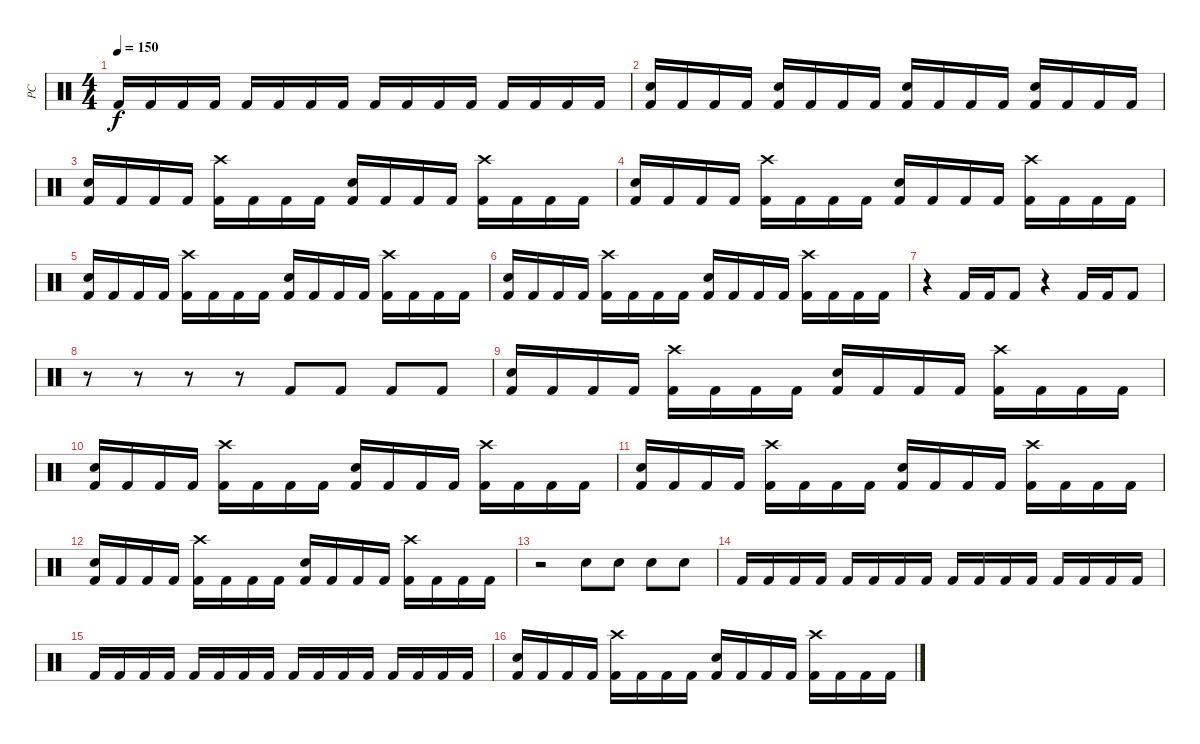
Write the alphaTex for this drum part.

\track ("PC" "PC") {instrument percussion}
\staff {score}
\articulation defaults
\ts (4 4)
\tempo 150
\clef neutral
\ks c "Kick (hit) 2".16{dy f} "Kick (hit) 2".16 "Kick (hit) 2".16 "Kick (hit) 2".16 "Kick (hit) 2".16 "Kick (hit) 2".16 "Kick (hit) 2".16 "Kick (hit) 2".16 "Kick (hit) 2".16 "Kick (hit) 2".16 "Kick (hit) 2".16 "Kick (hit) 2".16 "Kick (hit) 2".16 "Kick (hit) 2".16 "Kick (hit) 2".16 "Kick (hit) 2".16
|
("Kick (hit) 2" "Snare (hit) 2").16 "Kick (hit) 2".16 "Kick (hit) 2".16 "Kick (hit) 2".16 ("Kick (hit) 2" "Snare (hit) 2").16 "Kick (hit) 2".16 "Kick (hit) 2".16 "Kick (hit) 2".16 ("Kick (hit) 2" "Snare (hit) 2").16 "Kick (hit) 2".16 "Kick (hit) 2".16 "Kick (hit) 2".16 ("Kick (hit) 2" "Snare (hit) 2").16 "Kick (hit) 2".16 "Kick (hit) 2".16 "Kick (hit) 2".16 |
("Kick (hit) 2" "Snare (hit) 2").16 "Kick (hit) 2".16 "Kick (hit) 2".16 "Kick (hit) 2".16 ("Kick (hit) 2" "Crash high (hit)").16 "Kick (hit) 2".16 "Kick (hit) 2".16 "Kick (hit) 2".16 ("Kick (hit) 2" "Snare (hit) 2").16 "Kick (hit) 2".16 "Kick (hit) 2".16 "Kick (hit) 2".16 ("Kick (hit) 2" "Crash high (hit)").16 "Kick (hit) 2".16 "Kick (hit) 2".16 "Kick (hit) 2".16 |
("Kick (hit) 2" "Snare (hit) 2").16 "Kick (hit) 2".16 "Kick (hit) 2".16 "Kick (hit) 2".16 ("Kick (hit) 2" "Crash high (hit)").16 "Kick (hit) 2".16 "Kick (hit) 2".16 "Kick (hit) 2".16 ("Kick (hit) 2" "Snare (hit) 2").16 "Kick (hit) 2".16 "Kick (hit) 2".16 "Kick (hit) 2".16 ("Kick (hit) 2" "Crash high (hit)").16 "Kick (hit) 2".16 "Kick (hit) 2".16 "Kick (hit) 2".16 |
("Kick (hit) 2" "Snare (hit) 2").16 "Kick (hit) 2".16 "Kick (hit) 2".16 "Kick (hit) 2".16 ("Kick (hit) 2" "Crash high (hit)").16 "Kick (hit) 2".16 "Kick (hit) 2".16 "Kick (hit) 2".16 ("Kick (hit) 2" "Snare (hit) 2").16 "Kick (hit) 2".16 "Kick (hit) 2".16 "Kick (hit) 2".16 ("Kick (hit) 2" "Crash high (hit)").16 "Kick (hit) 2".16 "Kick (hit) 2".16 "Kick (hit) 2".16 |
("Kick (hit) 2" "Snare (hit) 2").16 "Kick (hit) 2".16 "Kick (hit) 2".16 "Kick (hit) 2".16 ("Kick (hit) 2" "Crash high (hit)").16 "Kick (hit) 2".16 "Kick (hit) 2".16 "Kick (hit) 2".16 ("Kick (hit) 2" "Snare (hit) 2").16 "Kick (hit) 2".16 "Kick (hit) 2".16 "Kick (hit) 2".16 ("Kick (hit) 2" "Crash high (hit)").16 "Kick (hit) 2".16 "Kick (hit) 2".16 "Kick (hit) 2".16 |
r.4 "Kick (hit) 2".16 "Kick (hit) 2".16 "Kick (hit) 2".8 r.4 "Kick (hit) 2".16 "Kick (hit) 2".16 "Kick (hit) 2".8 |
r.8 r.8 r.8 r.8 "Kick (hit) 2".8 "Kick (hit) 2".8 "Kick (hit) 2".8 "Kick (hit) 2".8 |
("Kick (hit) 2" "Snare (hit) 2").16 "Kick (hit) 2".16 "Kick (hit) 2".16 "Kick (hit) 2".16 ("Kick (hit) 2" "Crash high (hit)").16 "Kick (hit) 2".16 "Kick (hit) 2".16 "Kick (hit) 2".16 ("Kick (hit) 2" "Snare (hit) 2").16 "Kick (hit) 2".16 "Kick (hit) 2".16 "Kick (hit) 2".16 ("Kick (hit) 2" "Crash high (hit)").16 "Kick (hit) 2".16 "Kick (hit) 2".16 "Kick (hit) 2".16 |
("Kick (hit) 2" "Snare (hit) 2").16 "Kick (hit) 2".16 "Kick (hit) 2".16 "Kick (hit) 2".16 ("Kick (hit) 2" "Crash high (hit)").16 "Kick (hit) 2".16 "Kick (hit) 2".16 "Kick (hit) 2".16 ("Kick (hit) 2" "Snare (hit) 2").16 "Kick (hit) 2".16 "Kick (hit) 2".16 "Kick (hit) 2".16 ("Kick (hit) 2" "Crash high (hit)").16 "Kick (hit) 2".16 "Kick (hit) 2".16 "Kick (hit) 2".16 |
("Kick (hit) 2" "Snare (hit) 2").16 "Kick (hit) 2".16 "Kick (hit) 2".16 "Kick (hit) 2".16 ("Kick (hit) 2" "Crash high (hit)").16 "Kick (hit) 2".16 "Kick (hit) 2".16 "Kick (hit) 2".16 ("Kick (hit) 2" "Snare (hit) 2").16 "Kick (hit) 2".16 "Kick (hit) 2".16 "Kick (hit) 2".16 ("Kick (hit) 2" "Crash high (hit)").16 "Kick (hit) 2".16 "Kick (hit) 2".16 "Kick (hit) 2".16 |
("Kick (hit) 2" "Snare (hit) 2").16 "Kick (hit) 2".16 "Kick (hit) 2".16 "Kick (hit) 2".16 ("Kick (hit) 2" "Crash high (hit)").16 "Kick (hit) 2".16 "Kick (hit) 2".16 "Kick (hit) 2".16 ("Kick (hit) 2" "Snare (hit) 2").16 "Kick (hit) 2".16 "Kick (hit) 2".16 "Kick (hit) 2".16 ("Kick (hit) 2" "Crash high (hit)").16 "Kick (hit) 2".16 "Kick (hit) 2".16 "Kick (hit) 2".16 |
r.2 "Snare (hit) 2".8 "Snare (hit) 2".8 "Snare (hit) 2".8 "Snare (hit) 2".8 |
"Kick (hit) 2".16 "Kick (hit) 2".16 "Kick (hit) 2".16 "Kick (hit) 2".16 "Kick (hit) 2".16 "Kick (hit) 2".16 "Kick (hit) 2".16 "Kick (hit) 2".16 "Kick (hit) 2".16 "Kick (hit) 2".16 "Kick (hit) 2".16 "Kick (hit) 2".16 "Kick (hit) 2".16 "Kick (hit) 2".16 "Kick (hit) 2".16 "Kick (hit) 2".16 |
"Kick (hit) 2".16 "Kick (hit) 2".16 "Kick (hit) 2".16 "Kick (hit) 2".16 "Kick (hit) 2".16 "Kick (hit) 2".16 "Kick (hit) 2".16 "Kick (hit) 2".16 "Kick (hit) 2".16 "Kick (hit) 2".16 "Kick (hit) 2".16 "Kick (hit) 2".16 "Kick (hit) 2".16 "Kick (hit) 2".16 "Kick (hit) 2".16 "Kick (hit) 2".16 |
("Kick (hit) 2" "Snare (hit) 2").16 "Kick (hit) 2".16 "Kick (hit) 2".16 "Kick (hit) 2".16 ("Kick (hit) 2" "Crash high (hit)").16 "Kick (hit) 2".16 "Kick (hit) 2".16 "Kick (hit) 2".16 ("Kick (hit) 2" "Snare (hit) 2").16 "Kick (hit) 2".16 "Kick (hit) 2".16 "Kick (hit) 2".16 ("Kick (hit) 2" "Crash high (hit)").16 "Kick (hit) 2".16 "Kick (hit) 2".16 "Kick (hit) 2".16
